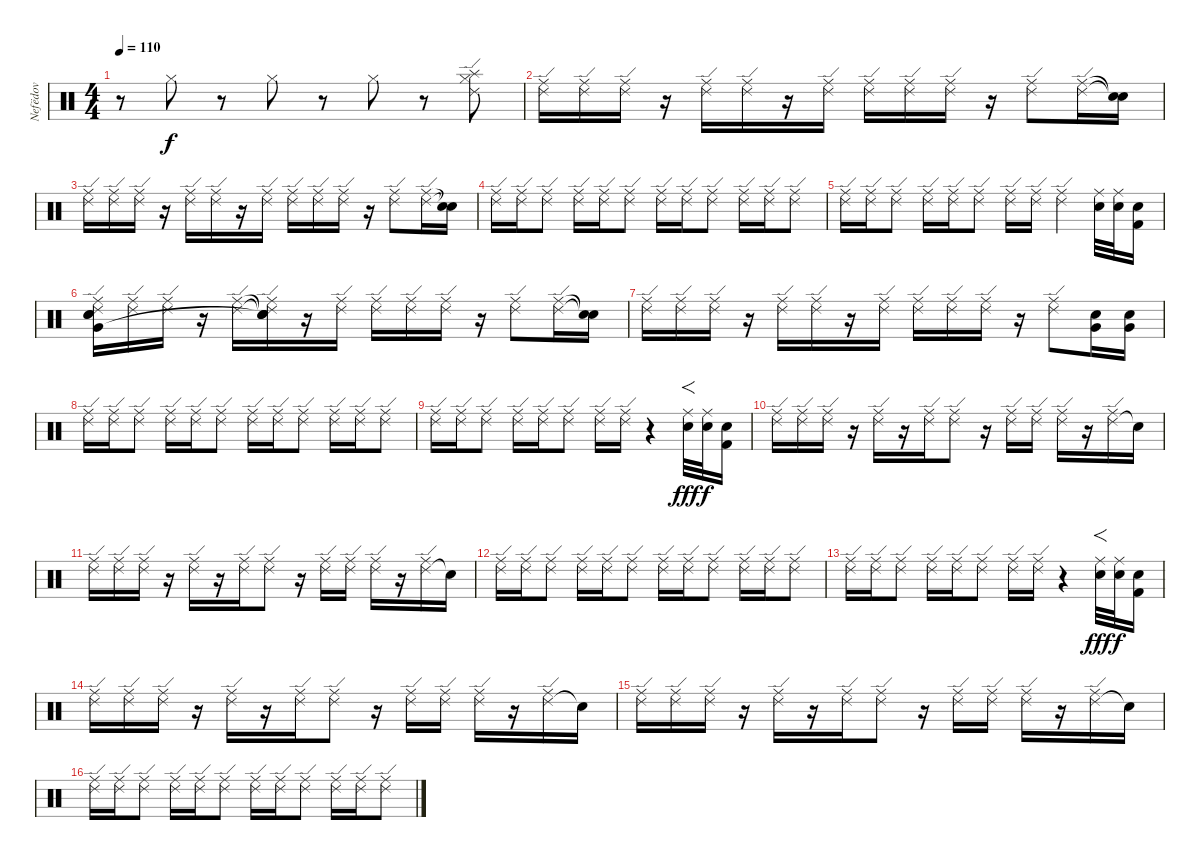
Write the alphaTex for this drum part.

\track ("Nefёdov" "Nefёdov") {instrument percussion}
\staff {score}
\articulation defaults
\ts (4 4)
\tempo 110
\clef neutral
\ks c
r.8{dy f} "Hi-Hat (closed)".8 r.8 "Hi-Hat (closed)".8 r.8 "Hi-Hat (closed)".8 r.8 ("Hi-Hat (closed)" "Splash (hit)" "Ride (edge) 2").8 |
("Ride (middle)" "Ride (edge) 2").16 ("Ride (middle)" "Ride (edge) 2").16 ("Ride (middle)" "Ride (edge) 2").16 r.16 ("Ride (middle)" "Ride (edge) 2").16 ("Ride (middle)" "Ride (edge) 2").16 r.16 ("Ride (middle)" "Ride (edge) 2").16 ("Ride (middle)" "Ride (edge) 2").16 ("Ride (middle)" "Ride (edge) 2").16 ("Ride (middle)" "Ride (edge) 2").16 r.16 ("Ride (middle)" "Ride (edge) 2").8 ("Ride (middle)" "Ride (edge) 2").16 ("Snare (hit)"{t} "Snare (hit)"{t}).16 |
("Ride (middle)" "Ride (edge) 2").16 ("Ride (middle)" "Ride (edge) 2").16 ("Ride (middle)" "Ride (edge) 2").16 r.16 ("Ride (middle)" "Ride (edge) 2").16 ("Ride (middle)" "Ride (edge) 2").16 r.16 ("Ride (middle)" "Ride (edge) 2").16 ("Ride (middle)" "Ride (edge) 2").16 ("Ride (middle)" "Ride (edge) 2").16 ("Ride (middle)" "Ride (edge) 2").16 r.16 ("Ride (middle)" "Ride (edge) 2").8 ("Ride (middle)" "Ride (edge) 2").16 ("Snare (hit)"{t} "Snare (hit)"{t}).16 |
("Ride (edge) 2" "Ride (middle)").16 ("Ride (edge) 2" "Ride (middle)").16 ("Ride (edge) 2" "Ride (middle)").8 ("Ride (edge) 2" "Ride (middle)").16 ("Ride (edge) 2" "Ride (middle)").16 ("Ride (edge) 2" "Ride (middle)").8 ("Ride (edge) 2" "Ride (middle)").16 ("Ride (edge) 2" "Ride (middle)").16 ("Ride (edge) 2" "Ride (middle)").8 ("Ride (edge) 2" "Ride (middle)").16 ("Ride (edge) 2" "Ride (middle)").16 ("Ride (edge) 2" "Ride (middle)").8 |
("Ride (edge) 2" "Ride (middle)").16 ("Ride (edge) 2" "Ride (middle)").16 ("Ride (edge) 2" "Ride (middle)").8 ("Ride (edge) 2" "Ride (middle)").16 ("Ride (edge) 2" "Ride (middle)").16 ("Ride (edge) 2" "Ride (middle)").8 ("Ride (edge) 2" "Ride (middle)").16 ("Ride (edge) 2" "Ride (middle)").16 ("Ride (edge) 2" "Ride (middle)").4 ("Electric Snare (hit)" "Ride (middle)").32 ("Electric Snare (hit)" "Ride (middle)").32 ("Snare (hit) 2" "Kick (hit) 2").16 |
("Snare (hit) 2" "Electric Snare (hit)" "Ride (middle)" "Ride (edge) 2" "Very Low Tom (hit)").16 ("Ride (middle)" "Ride (edge) 2").16 ("Ride (middle)" "Ride (edge) 2").16 r.16 ("Ride (middle)" "Ride (edge) 2").16 ("Snare (hit)"{t} "Snare (hit)"{t} "Ride (middle)" "Ride (edge) 2" "Snare (hit)"{t}).16 r.16 ("Ride (middle)" "Ride (edge) 2").16 ("Ride (middle)" "Ride (edge) 2").16 ("Ride (middle)" "Ride (edge) 2").16 ("Ride (middle)" "Ride (edge) 2").16 r.16 ("Ride (middle)" "Ride (edge) 2").8 ("Ride (middle)" "Ride (edge) 2").16 ("Snare (hit)"{t} "Snare (hit)"{t}).16 |
("Ride (middle)" "Ride (edge) 2").16 ("Ride (middle)" "Ride (edge) 2").16 ("Ride (middle)" "Ride (edge) 2").16 r.16 ("Ride (middle)" "Ride (edge) 2").16 ("Ride (middle)" "Ride (edge) 2").16 r.16 ("Ride (middle)" "Ride (edge) 2").16 ("Ride (middle)" "Ride (edge) 2").16 ("Ride (middle)" "Ride (edge) 2").16 ("Ride (middle)" "Ride (edge) 2").16 r.16 ("Ride (middle)" "Ride (edge) 2").8 ("Very Low Tom (hit)" "Snare (hit) 2").16 ("Very Low Tom (hit)" "Snare (hit) 2").16 |
("Ride (edge) 2" "Ride (middle)").16 ("Ride (edge) 2" "Ride (middle)").16 ("Ride (edge) 2" "Ride (middle)").8 ("Ride (edge) 2" "Ride (middle)").16 ("Ride (edge) 2" "Ride (middle)").16 ("Ride (edge) 2" "Ride (middle)").8 ("Ride (edge) 2" "Ride (middle)").16 ("Ride (edge) 2" "Ride (middle)").16 ("Ride (edge) 2" "Ride (middle)").8 ("Ride (edge) 2" "Ride (middle)").16 ("Ride (edge) 2" "Ride (middle)").16 ("Ride (edge) 2" "Ride (middle)").8 |
("Ride (edge) 2" "Ride (middle)").16 ("Ride (edge) 2" "Ride (middle)").16 ("Ride (edge) 2" "Ride (middle)").8 ("Ride (edge) 2" "Ride (middle)").16 ("Ride (edge) 2" "Ride (middle)").16 ("Ride (edge) 2" "Ride (middle)").8 ("Ride (edge) 2" "Ride (middle)").16 ("Ride (edge) 2" "Ride (middle)").16 r.4 ("Electric Snare (hit)" "Ride (middle)").32{f dy fff} ("Electric Snare (hit)" "Ride (middle)").32{dy f} ("Snare (hit) 2" "Kick (hit) 2").16 |
("Ride (edge) 2" "Ride (middle)").16 ("Ride (edge) 2" "Ride (middle)").16 ("Ride (edge) 2" "Ride (middle)").16 r.16 ("Ride (edge) 2" "Ride (middle)").16 r.16 ("Ride (edge) 2" "Ride (middle)").16 ("Ride (edge) 2" "Ride (middle)").8 r.16 ("Ride (edge) 2" "Ride (middle)").16 ("Ride (edge) 2" "Ride (middle)").16 ("Ride (edge) 2" "Ride (middle)").16 r.16 ("Ride (edge) 2" "Ride (middle)").16 "Snare (hit)"{t}.16 |
("Ride (edge) 2" "Ride (middle)").16 ("Ride (edge) 2" "Ride (middle)").16 ("Ride (edge) 2" "Ride (middle)").16 r.16 ("Ride (edge) 2" "Ride (middle)").16 r.16 ("Ride (edge) 2" "Ride (middle)").16 ("Ride (edge) 2" "Ride (middle)").8 r.16 ("Ride (edge) 2" "Ride (middle)").16 ("Ride (edge) 2" "Ride (middle)").16 ("Ride (edge) 2" "Ride (middle)").16 r.16 ("Ride (edge) 2" "Ride (middle)").16 "Snare (hit)"{t}.16 |
("Ride (edge) 2" "Ride (middle)").16 ("Ride (edge) 2" "Ride (middle)").16 ("Ride (edge) 2" "Ride (middle)").8 ("Ride (edge) 2" "Ride (middle)").16 ("Ride (edge) 2" "Ride (middle)").16 ("Ride (edge) 2" "Ride (middle)").8 ("Ride (edge) 2" "Ride (middle)").16 ("Ride (edge) 2" "Ride (middle)").16 ("Ride (edge) 2" "Ride (middle)").8 ("Ride (edge) 2" "Ride (middle)").16 ("Ride (edge) 2" "Ride (middle)").16 ("Ride (edge) 2" "Ride (middle)").8 |
("Ride (edge) 2" "Ride (middle)").16 ("Ride (edge) 2" "Ride (middle)").16 ("Ride (edge) 2" "Ride (middle)").8 ("Ride (edge) 2" "Ride (middle)").16 ("Ride (edge) 2" "Ride (middle)").16 ("Ride (edge) 2" "Ride (middle)").8 ("Ride (edge) 2" "Ride (middle)").16 ("Ride (edge) 2" "Ride (middle)").16 r.4 ("Electric Snare (hit)" "Ride (middle)").32{f dy fff} ("Electric Snare (hit)" "Ride (middle)").32{dy f} ("Snare (hit) 2" "Kick (hit) 2").16 |
("Ride (edge) 2" "Ride (middle)").16 ("Ride (edge) 2" "Ride (middle)").16 ("Ride (edge) 2" "Ride (middle)").16 r.16 ("Ride (edge) 2" "Ride (middle)").16 r.16 ("Ride (edge) 2" "Ride (middle)").16 ("Ride (edge) 2" "Ride (middle)").8 r.16 ("Ride (edge) 2" "Ride (middle)").16 ("Ride (edge) 2" "Ride (middle)").16 ("Ride (edge) 2" "Ride (middle)").16 r.16 ("Ride (edge) 2" "Ride (middle)").16 "Snare (hit)"{t}.16 |
("Ride (edge) 2" "Ride (middle)").16 ("Ride (edge) 2" "Ride (middle)").16 ("Ride (edge) 2" "Ride (middle)").16 r.16 ("Ride (edge) 2" "Ride (middle)").16 r.16 ("Ride (edge) 2" "Ride (middle)").16 ("Ride (edge) 2" "Ride (middle)").8 r.16 ("Ride (edge) 2" "Ride (middle)").16 ("Ride (edge) 2" "Ride (middle)").16 ("Ride (edge) 2" "Ride (middle)").16 r.16 ("Ride (edge) 2" "Ride (middle)").16 "Snare (hit)"{t}.16 |
("Ride (edge) 2" "Ride (middle)").16 ("Ride (edge) 2" "Ride (middle)").16 ("Ride (edge) 2" "Ride (middle)").8 ("Ride (edge) 2" "Ride (middle)").16 ("Ride (edge) 2" "Ride (middle)").16 ("Ride (edge) 2" "Ride (middle)").8 ("Ride (edge) 2" "Ride (middle)").16 ("Ride (edge) 2" "Ride (middle)").16 ("Ride (edge) 2" "Ride (middle)").8 ("Ride (edge) 2" "Ride (middle)").16 ("Ride (edge) 2" "Ride (middle)").16 ("Ride (edge) 2" "Ride (middle)").8
